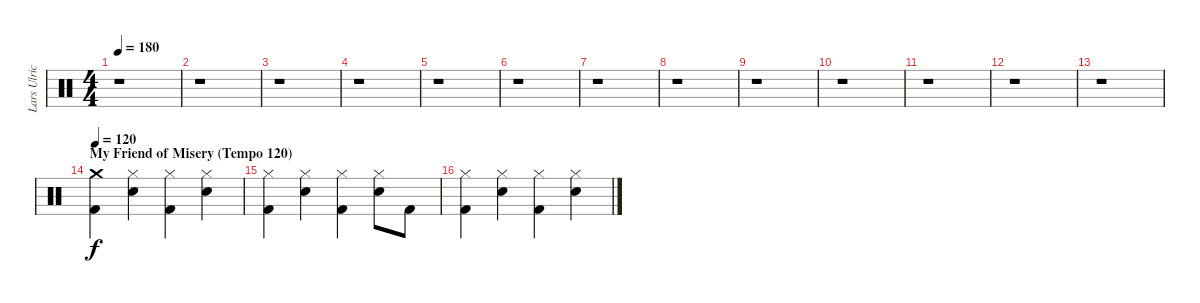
\track ("Lars Ulrich (Drums)" "Lars Ulric") {instrument percussion}
\staff {score}
\articulation defaults
\ts (4 4)
\tempo 180
\clef neutral
\ks c
r.1{dy f} |
r.1 |
r.1 |
r.1 |
r.1 |
r.1 |
r.1 |
r.1 |
r.1 |
r.1 |
r.1 |
r.1 |
r.1 |
\section ("" "My Friend of Misery (Tempo 120)")
\tempo 120
("Kick (hit) 2" "Crash medium (hit)").4 ("Hi-Hat (closed)" "Snare (hit) 2").4 ("Hi-Hat (closed)" "Kick (hit) 2").4 ("Snare (hit) 2" "Hi-Hat (closed)").4 |
("Hi-Hat (closed)" "Kick (hit) 2").4 ("Hi-Hat (closed)" "Snare (hit) 2").4 ("Hi-Hat (closed)" "Kick (hit) 2").4 ("Snare (hit) 2" "Hi-Hat (closed)").8 "Kick (hit) 2".8 |
("Kick (hit) 2" "Hi-Hat (closed)").4 ("Snare (hit) 2" "Hi-Hat (closed)").4 ("Kick (hit) 2" "Hi-Hat (closed)").4 ("Snare (hit) 2" "Hi-Hat (closed)").4
